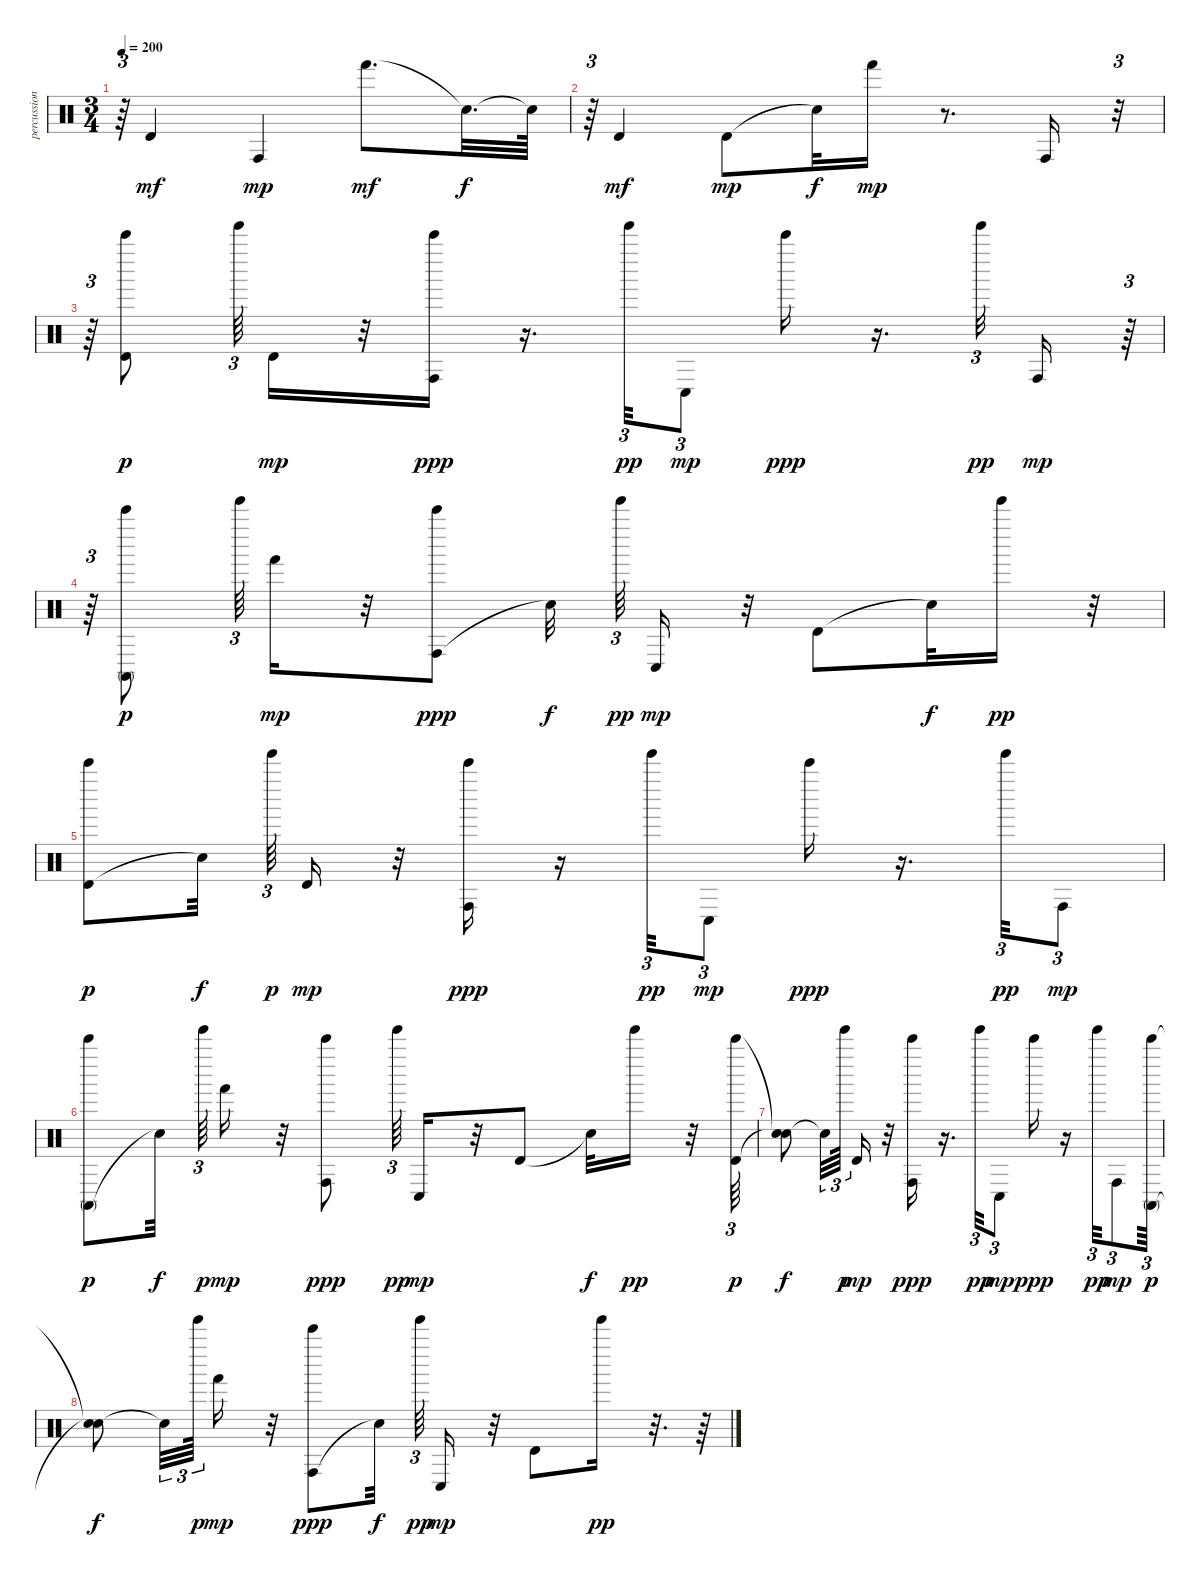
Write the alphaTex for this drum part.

\track ("percussion" "percussion") {instrument percussion}
\staff {score}
\articulation defaults
\ts (3 4)
\tempo 200
\clef neutral
\ks c
r.64{tu (3 2) dy mp} "Timbale high (hit)".4{dy mf} "Conga high (hit)".4{dy mp} "Hand (hit)".8{d dy mf} "Snare (hit)"{t}.32{d dy f} "Snare (hit)"{t}.64 |
r.64{tu (3 2)} "Timbale high (hit)".4{dy mf} "Timbale high (hit)".8{dy mp} "Snare (hit)"{t}.32{dy f} "Hand (hit)".16{dy mp} r.8{d} "Conga high (hit)".16 r.32{tu (3 2)} |
r.64{tu (3 2)} ("Timbale high (hit)" "Bell Tree (hit)").8{dy p} "Tinkle Bell (hit)".64{tu (3 2)} "Timbale high (hit)".16{dy mp} r.32 ("Conga high (hit)" "Bell Tree (hit)").16{dy ppp} r.16{d} "Tinkle Bell (hit)".32{tu (3 2) dy pp} "Conga low (hit)".8{tu (3 2) dy mp} "Bell Tree (hit)".16{dy ppp} r.16{d} "Tinkle Bell (hit)".32{tu (3 2) dy pp} "Conga high (hit)".16{dy mp} r.64{tu (3 2)} |
r.64{tu (3 2)} ("Conga high (mute)" "Bell Tree (hit)").8{dy p} "Tinkle Bell (hit)".64{tu (3 2)} "Hand (hit)".16{dy mp} r.32 ("Conga high (hit)" "Bell Tree (hit)").8{dy ppp} "Snare (hit)"{t}.32{dy f} "Tinkle Bell (hit)".64{tu (3 2) dy pp} "Conga low (hit)".16{dy mp} r.32 "Timbale high (hit)".8 "Snare (hit)"{t}.32{dy f} "Tinkle Bell (hit)".16{dy pp} r.32 |
("Timbale high (hit)" "Bell Tree (hit)").8{dy p} "Snare (hit)"{t}.32{dy f} "Tinkle Bell (hit)".64{tu (3 2) dy p} "Timbale high (hit)".16{dy mp} r.32 ("Conga high (hit)" "Bell Tree (hit)").16{dy ppp} r.16 "Tinkle Bell (hit)".32{tu (3 2) dy pp} "Conga low (hit)".8{tu (3 2) dy mp} "Bell Tree (hit)".16{dy ppp} r.16{d} "Tinkle Bell (hit)".32{tu (3 2) dy pp} "Conga high (hit)".8{tu (3 2) dy mp} |
("Conga high (mute)" "Bell Tree (hit)").8{dy p} "Snare (hit)"{t}.32{dy f} "Tinkle Bell (hit)".64{tu (3 2) dy p} "Hand (hit)".16{dy mp} r.32 ("Conga high (hit)" "Bell Tree (hit)").8{dy ppp} "Tinkle Bell (hit)".64{tu (3 2) dy pp} "Conga low (hit)".16{dy mp} r.32 "Timbale high (hit)".8 "Snare (hit)"{t}.32{dy f} "Tinkle Bell (hit)".16{dy pp} r.32 ("Timbale high (hit)" "Bell Tree (hit)").64{tu (3 2) dy p} |
("Snare (hit)"{t} "Snare (hit)"{t}).8{dy f} "Snare (hit)"{t}.32{tu (3 2)} "Tinkle Bell (hit)".64{tu (3 2) dy p} "Timbale high (hit)".16{dy mp} r.32 ("Conga high (hit)" "Bell Tree (hit)").16{dy ppp} r.16{d} "Tinkle Bell (hit)".32{tu (3 2) dy pp} "Conga low (hit)".8{tu (3 2) dy mp} "Bell Tree (hit)".16{dy ppp} r.16 "Tinkle Bell (hit)".32{tu (3 2) dy pp} "Conga high (hit)".8{tu (3 2) dy mp} ("Conga high (mute)" "Bell Tree (hit)").64{tu (3 2) dy p} |
("Snare (hit)"{t} "Snare (hit)"{t}).8{dy f} "Snare (hit)"{t}.32{tu (3 2)} "Tinkle Bell (hit)".64{tu (3 2) dy p} "Hand (hit)".16{dy mp} r.32 ("Conga high (hit)" "Bell Tree (hit)").8{dy ppp} "Snare (hit)"{t}.32{dy f} "Tinkle Bell (hit)".64{tu (3 2) dy pp} "Conga low (hit)".16{dy mp} r.32 "Timbale high (hit)".8 "Tinkle Bell (hit)".16{dy pp} r.32{d} r.64
